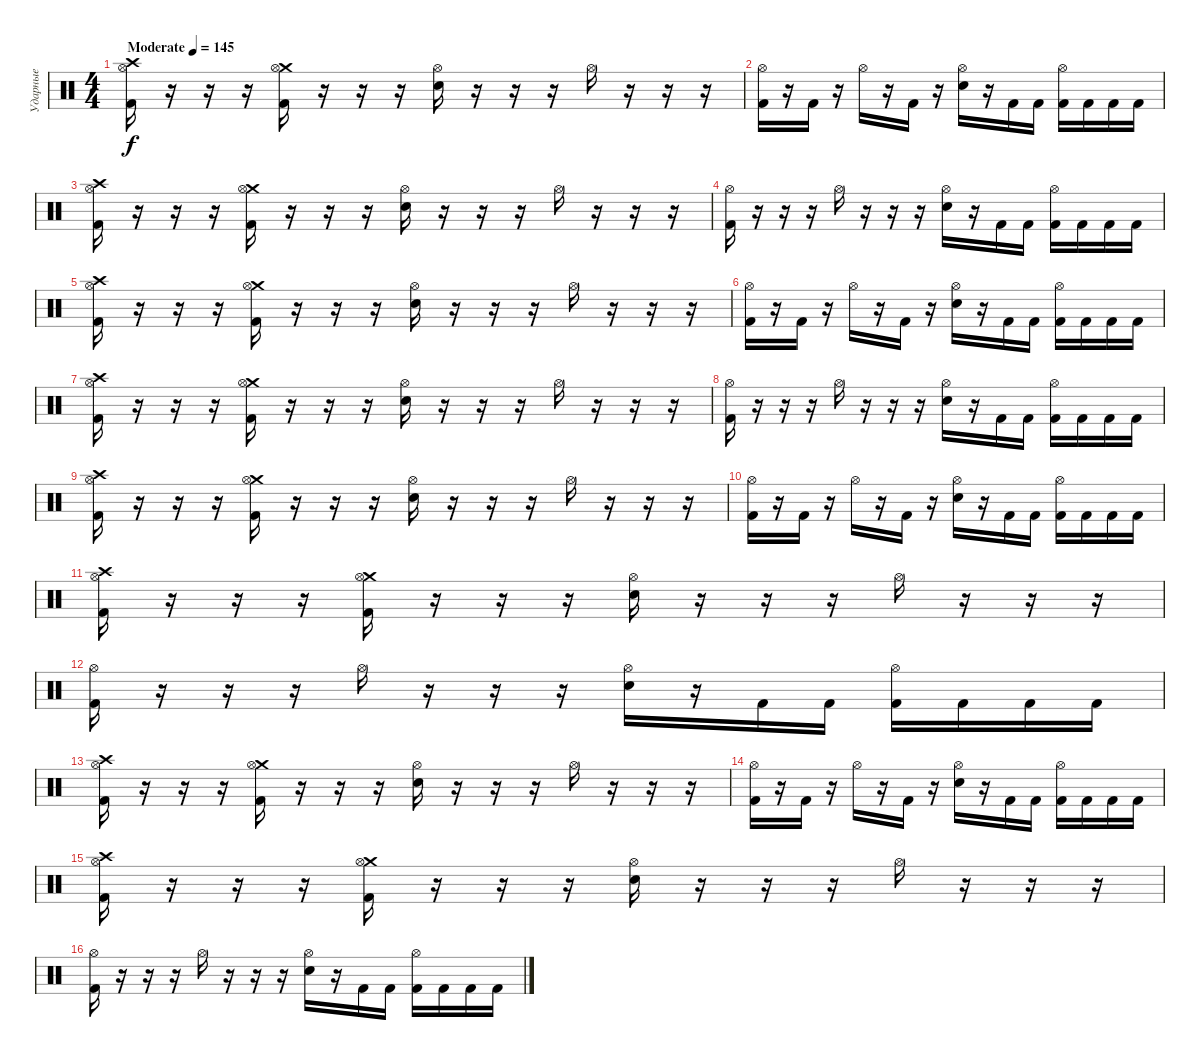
\track ("Ударные" "Ударные") {instrument percussion}
\staff {score}
\articulation defaults
\ts (4 4)
\tempo (145 "Moderate")
\clef neutral
\ks c
("Crash high (hit)" "Hi-Hat (open)" "Kick (hit) 2").16{dy f} r.16 r.16 r.16 ("Crash medium (hit)" "Hi-Hat (open)" "Kick (hit) 2").16 r.16 r.16 r.16 ("Hi-Hat (open)" "Electric Snare (hit)").16 r.16 r.16 r.16 "Hi-Hat (open)".16 r.16 r.16 r.16 |
("Hi-Hat (open)" "Kick (hit) 2").16 r.16 "Kick (hit) 2".16 r.16 "Hi-Hat (open)".16 r.16 "Kick (hit) 2".16 r.16 ("Hi-Hat (open)" "Electric Snare (hit)").16 r.16 "Kick (hit) 2".16 "Kick (hit) 2".16 ("Hi-Hat (open)" "Kick (hit) 2").16 "Kick (hit) 2".16 "Kick (hit) 2".16 "Kick (hit) 2".16 |
("Crash high (hit)" "Hi-Hat (open)" "Kick (hit) 2").16 r.16 r.16 r.16 ("Crash medium (hit)" "Hi-Hat (open)" "Kick (hit) 2").16 r.16 r.16 r.16 ("Hi-Hat (open)" "Electric Snare (hit)").16 r.16 r.16 r.16 "Hi-Hat (open)".16 r.16 r.16 r.16 |
("Hi-Hat (open)" "Kick (hit) 2").16 r.16 r.16 r.16 "Hi-Hat (open)".16 r.16 r.16 r.16 ("Hi-Hat (open)" "Electric Snare (hit)").16 r.16 "Kick (hit) 2".16 "Kick (hit) 2".16 ("Hi-Hat (open)" "Kick (hit) 2").16 "Kick (hit) 2".16 "Kick (hit) 2".16 "Kick (hit) 2".16 |
("Crash high (hit)" "Hi-Hat (open)" "Kick (hit) 2").16 r.16 r.16 r.16 ("Crash medium (hit)" "Hi-Hat (open)" "Kick (hit) 2").16 r.16 r.16 r.16 ("Hi-Hat (open)" "Electric Snare (hit)").16 r.16 r.16 r.16 "Hi-Hat (open)".16 r.16 r.16 r.16 |
("Hi-Hat (open)" "Kick (hit) 2").16 r.16 "Kick (hit) 2".16 r.16 "Hi-Hat (open)".16 r.16 "Kick (hit) 2".16 r.16 ("Hi-Hat (open)" "Electric Snare (hit)").16 r.16 "Kick (hit) 2".16 "Kick (hit) 2".16 ("Hi-Hat (open)" "Kick (hit) 2").16 "Kick (hit) 2".16 "Kick (hit) 2".16 "Kick (hit) 2".16 |
("Crash high (hit)" "Hi-Hat (open)" "Kick (hit) 2").16 r.16 r.16 r.16 ("Crash medium (hit)" "Hi-Hat (open)" "Kick (hit) 2").16 r.16 r.16 r.16 ("Hi-Hat (open)" "Electric Snare (hit)").16 r.16 r.16 r.16 "Hi-Hat (open)".16 r.16 r.16 r.16 |
("Hi-Hat (open)" "Kick (hit) 2").16 r.16 r.16 r.16 "Hi-Hat (open)".16 r.16 r.16 r.16 ("Hi-Hat (open)" "Electric Snare (hit)").16 r.16 "Kick (hit) 2".16 "Kick (hit) 2".16 ("Hi-Hat (open)" "Kick (hit) 2").16 "Kick (hit) 2".16 "Kick (hit) 2".16 "Kick (hit) 2".16 |
("Crash high (hit)" "Hi-Hat (open)" "Kick (hit) 2").16 r.16 r.16 r.16 ("Crash medium (hit)" "Hi-Hat (open)" "Kick (hit) 2").16 r.16 r.16 r.16 ("Hi-Hat (open)" "Electric Snare (hit)").16 r.16 r.16 r.16 "Hi-Hat (open)".16 r.16 r.16 r.16 |
("Hi-Hat (open)" "Kick (hit) 2").16 r.16 "Kick (hit) 2".16 r.16 "Hi-Hat (open)".16 r.16 "Kick (hit) 2".16 r.16 ("Hi-Hat (open)" "Electric Snare (hit)").16 r.16 "Kick (hit) 2".16 "Kick (hit) 2".16 ("Hi-Hat (open)" "Kick (hit) 2").16 "Kick (hit) 2".16 "Kick (hit) 2".16 "Kick (hit) 2".16 |
("Crash high (hit)" "Hi-Hat (open)" "Kick (hit) 2").16 r.16 r.16 r.16 ("Crash medium (hit)" "Hi-Hat (open)" "Kick (hit) 2").16 r.16 r.16 r.16 ("Hi-Hat (open)" "Electric Snare (hit)").16 r.16 r.16 r.16 "Hi-Hat (open)".16 r.16 r.16 r.16 |
("Hi-Hat (open)" "Kick (hit) 2").16 r.16 r.16 r.16 "Hi-Hat (open)".16 r.16 r.16 r.16 ("Hi-Hat (open)" "Electric Snare (hit)").16 r.16 "Kick (hit) 2".16 "Kick (hit) 2".16 ("Hi-Hat (open)" "Kick (hit) 2").16 "Kick (hit) 2".16 "Kick (hit) 2".16 "Kick (hit) 2".16 |
("Crash high (hit)" "Hi-Hat (open)" "Kick (hit) 2").16 r.16 r.16 r.16 ("Crash medium (hit)" "Hi-Hat (open)" "Kick (hit) 2").16 r.16 r.16 r.16 ("Hi-Hat (open)" "Electric Snare (hit)").16 r.16 r.16 r.16 "Hi-Hat (open)".16 r.16 r.16 r.16 |
("Hi-Hat (open)" "Kick (hit) 2").16 r.16 "Kick (hit) 2".16 r.16 "Hi-Hat (open)".16 r.16 "Kick (hit) 2".16 r.16 ("Hi-Hat (open)" "Electric Snare (hit)").16 r.16 "Kick (hit) 2".16 "Kick (hit) 2".16 ("Hi-Hat (open)" "Kick (hit) 2").16 "Kick (hit) 2".16 "Kick (hit) 2".16 "Kick (hit) 2".16 |
("Crash high (hit)" "Hi-Hat (open)" "Kick (hit) 2").16 r.16 r.16 r.16 ("Crash medium (hit)" "Hi-Hat (open)" "Kick (hit) 2").16 r.16 r.16 r.16 ("Hi-Hat (open)" "Electric Snare (hit)").16 r.16 r.16 r.16 "Hi-Hat (open)".16 r.16 r.16 r.16 |
("Hi-Hat (open)" "Kick (hit) 2").16 r.16 r.16 r.16 "Hi-Hat (open)".16 r.16 r.16 r.16 ("Hi-Hat (open)" "Electric Snare (hit)").16 r.16 "Kick (hit) 2".16 "Kick (hit) 2".16 ("Hi-Hat (open)" "Kick (hit) 2").16 "Kick (hit) 2".16 "Kick (hit) 2".16 "Kick (hit) 2".16
